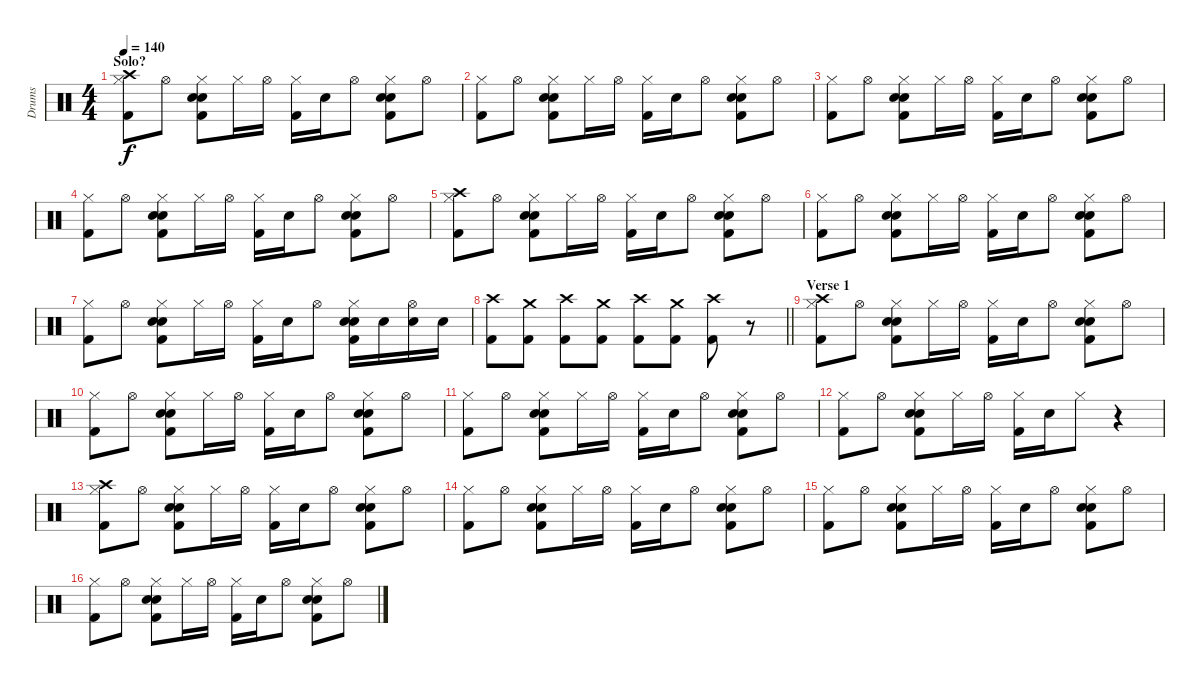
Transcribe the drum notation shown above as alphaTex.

\track ("Drums" "Drums") {instrument percussion}
\staff {score}
\articulation defaults
\ts (4 4)
\section ("" "Solo?")
\tempo 140
\clef neutral
\ks c
("Crash high (hit)" "Hi-Hat (closed)" "Kick (hit) 2").8{dy f} "Hi-Hat (open)".8 ("Hi-Hat (closed)" "Hand Clap (hit)" "Snare (hit) 2" "Kick (hit) 2").8 "Hi-Hat (closed)".16 "Hi-Hat (open)".16 ("Hi-Hat (closed)" "Kick (hit) 2").16 "Hand Clap (hit)".16 "Hi-Hat (open)".8 ("Hi-Hat (closed)" "Hand Clap (hit)" "Snare (hit) 2" "Kick (hit) 2").8 "Hi-Hat (open)".8 |
("Hi-Hat (closed)" "Kick (hit) 2").8 "Hi-Hat (open)".8 ("Hi-Hat (closed)" "Hand Clap (hit)" "Snare (hit) 2" "Kick (hit) 2").8 "Hi-Hat (closed)".16 "Hi-Hat (open)".16 ("Hi-Hat (closed)" "Kick (hit) 2").16 "Hand Clap (hit)".16 "Hi-Hat (open)".8 ("Hi-Hat (closed)" "Hand Clap (hit)" "Snare (hit) 2" "Kick (hit) 2").8 "Hi-Hat (open)".8 |
("Hi-Hat (closed)" "Kick (hit) 2").8 "Hi-Hat (open)".8 ("Hi-Hat (closed)" "Hand Clap (hit)" "Snare (hit) 2" "Kick (hit) 2").8 "Hi-Hat (closed)".16 "Hi-Hat (open)".16 ("Hi-Hat (closed)" "Kick (hit) 2").16 "Hand Clap (hit)".16 "Hi-Hat (open)".8 ("Hi-Hat (closed)" "Hand Clap (hit)" "Snare (hit) 2" "Kick (hit) 2").8 "Hi-Hat (open)".8 |
("Hi-Hat (closed)" "Kick (hit) 2").8 "Hi-Hat (open)".8 ("Hi-Hat (closed)" "Hand Clap (hit)" "Snare (hit) 2" "Kick (hit) 2").8 "Hi-Hat (closed)".16 "Hi-Hat (open)".16 ("Hi-Hat (closed)" "Kick (hit) 2").16 "Hand Clap (hit)".16 "Hi-Hat (open)".8 ("Hi-Hat (closed)" "Hand Clap (hit)" "Snare (hit) 2" "Kick (hit) 2").8 "Hi-Hat (open)".8 |
("Crash high (hit)" "Hi-Hat (closed)" "Kick (hit) 2").8 "Hi-Hat (open)".8 ("Hi-Hat (closed)" "Hand Clap (hit)" "Snare (hit) 2" "Kick (hit) 2").8 "Hi-Hat (closed)".16 "Hi-Hat (open)".16 ("Hi-Hat (closed)" "Kick (hit) 2").16 "Hand Clap (hit)".16 "Hi-Hat (open)".8 ("Hi-Hat (closed)" "Hand Clap (hit)" "Snare (hit) 2" "Kick (hit) 2").8 "Hi-Hat (open)".8 |
("Hi-Hat (closed)" "Kick (hit) 2").8 "Hi-Hat (open)".8 ("Hi-Hat (closed)" "Hand Clap (hit)" "Snare (hit) 2" "Kick (hit) 2").8 "Hi-Hat (closed)".16 "Hi-Hat (open)".16 ("Hi-Hat (closed)" "Kick (hit) 2").16 "Hand Clap (hit)".16 "Hi-Hat (open)".8 ("Hi-Hat (closed)" "Hand Clap (hit)" "Snare (hit) 2" "Kick (hit) 2").8 "Hi-Hat (open)".8 |
("Hi-Hat (closed)" "Kick (hit) 2").8 "Hi-Hat (open)".8 ("Hi-Hat (closed)" "Hand Clap (hit)" "Snare (hit) 2" "Kick (hit) 2").8 "Hi-Hat (closed)".16 "Hi-Hat (open)".16 ("Hi-Hat (closed)" "Kick (hit) 2").16 "Hand Clap (hit)".16 "Hi-Hat (open)".8 ("Hi-Hat (closed)" "Hand Clap (hit)" "Snare (hit) 2" "Kick (hit) 2").16 "Snare (hit) 2".16 ("Hi-Hat (open)" "Snare (hit) 2").16 "Snare (hit) 2".16 |
\barLineRight lightlight
("Crash high (hit)" "Kick (hit) 2").8 ("Crash medium (hit)" "Kick (hit) 2").8 ("Crash high (hit)" "Kick (hit) 2").8 ("Crash medium (hit)" "Kick (hit) 2").8 ("Crash high (hit)" "Kick (hit) 2").8 ("Crash medium (hit)" "Kick (hit) 2").8 ("Crash high (hit)" "Kick (hit) 2").8 r.8 |
\section ("" "Verse 1")
("Crash high (hit)" "Hi-Hat (closed)" "Kick (hit) 2").8 "Hi-Hat (open)".8 ("Hi-Hat (closed)" "Hand Clap (hit)" "Snare (hit) 2" "Kick (hit) 2").8 "Hi-Hat (closed)".16 "Hi-Hat (open)".16 ("Hi-Hat (closed)" "Kick (hit) 2").16 "Hand Clap (hit)".16 "Hi-Hat (open)".8 ("Hi-Hat (closed)" "Hand Clap (hit)" "Snare (hit) 2" "Kick (hit) 2").8 "Hi-Hat (open)".8 |
("Hi-Hat (closed)" "Kick (hit) 2").8 "Hi-Hat (open)".8 ("Hi-Hat (closed)" "Hand Clap (hit)" "Snare (hit) 2" "Kick (hit) 2").8 "Hi-Hat (closed)".16 "Hi-Hat (open)".16 ("Hi-Hat (closed)" "Kick (hit) 2").16 "Hand Clap (hit)".16 "Hi-Hat (open)".8 ("Hi-Hat (closed)" "Hand Clap (hit)" "Snare (hit) 2" "Kick (hit) 2").8 "Hi-Hat (open)".8 |
("Hi-Hat (closed)" "Kick (hit) 2").8 "Hi-Hat (open)".8 ("Hi-Hat (closed)" "Hand Clap (hit)" "Snare (hit) 2" "Kick (hit) 2").8 "Hi-Hat (closed)".16 "Hi-Hat (open)".16 ("Hi-Hat (closed)" "Kick (hit) 2").16 "Hand Clap (hit)".16 "Hi-Hat (open)".8 ("Hi-Hat (closed)" "Hand Clap (hit)" "Snare (hit) 2" "Kick (hit) 2").8 "Hi-Hat (open)".8 |
("Hi-Hat (closed)" "Kick (hit) 2").8 "Hi-Hat (open)".8 ("Hi-Hat (closed)" "Hand Clap (hit)" "Snare (hit) 2" "Kick (hit) 2").8 "Hi-Hat (closed)".16 "Hi-Hat (open)".16 ("Hi-Hat (closed)" "Kick (hit) 2").16 "Hand Clap (hit)".16 "Hi-Hat (closed)".8 r.4 |
("Crash high (hit)" "Hi-Hat (closed)" "Kick (hit) 2").8 "Hi-Hat (open)".8 ("Hi-Hat (closed)" "Hand Clap (hit)" "Snare (hit) 2" "Kick (hit) 2").8 "Hi-Hat (closed)".16 "Hi-Hat (open)".16 ("Hi-Hat (closed)" "Kick (hit) 2").16 "Hand Clap (hit)".16 "Hi-Hat (open)".8 ("Hi-Hat (closed)" "Hand Clap (hit)" "Snare (hit) 2" "Kick (hit) 2").8 "Hi-Hat (open)".8 |
("Hi-Hat (closed)" "Kick (hit) 2").8 "Hi-Hat (open)".8 ("Hi-Hat (closed)" "Hand Clap (hit)" "Snare (hit) 2" "Kick (hit) 2").8 "Hi-Hat (closed)".16 "Hi-Hat (open)".16 ("Hi-Hat (closed)" "Kick (hit) 2").16 "Hand Clap (hit)".16 "Hi-Hat (open)".8 ("Hi-Hat (closed)" "Hand Clap (hit)" "Snare (hit) 2" "Kick (hit) 2").8 "Hi-Hat (open)".8 |
("Hi-Hat (closed)" "Kick (hit) 2").8 "Hi-Hat (open)".8 ("Hi-Hat (closed)" "Hand Clap (hit)" "Snare (hit) 2" "Kick (hit) 2").8 "Hi-Hat (closed)".16 "Hi-Hat (open)".16 ("Hi-Hat (closed)" "Kick (hit) 2").16 "Hand Clap (hit)".16 "Hi-Hat (open)".8 ("Hi-Hat (closed)" "Hand Clap (hit)" "Snare (hit) 2" "Kick (hit) 2").8 "Hi-Hat (open)".8 |
("Hi-Hat (closed)" "Kick (hit) 2").8 "Hi-Hat (open)".8 ("Hi-Hat (closed)" "Hand Clap (hit)" "Snare (hit) 2" "Kick (hit) 2").8 "Hi-Hat (closed)".16 "Hi-Hat (open)".16 ("Hi-Hat (closed)" "Kick (hit) 2").16 "Hand Clap (hit)".16 "Hi-Hat (open)".8 ("Hi-Hat (closed)" "Hand Clap (hit)" "Snare (hit) 2" "Kick (hit) 2").8 "Hi-Hat (open)".8
